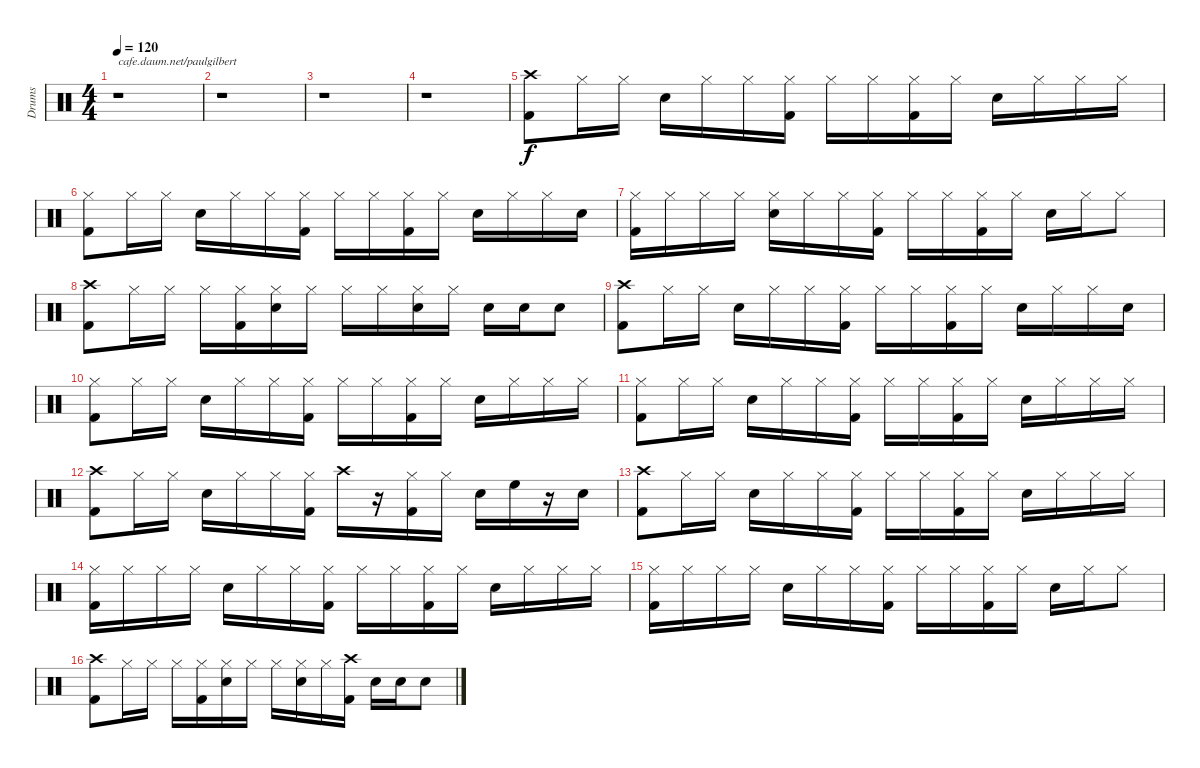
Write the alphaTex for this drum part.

\track ("Drums" "Drums") {instrument percussion}
\staff {score}
\articulation defaults
\ts (4 4)
\tempo 120
\clef neutral
\ks c
r.1{txt "cafe.daum.net/paulgilbert" dy f} |
r.1 |
r.1 |
r.1 |
("Crash high (hit)" "Kick (hit) 2").8 "Hi-Hat (closed)".16 "Hi-Hat (closed)".16 "Snare (hit) 2".16 "Hi-Hat (closed)".16 "Hi-Hat (closed)".16 ("Hi-Hat (closed)" "Kick (hit) 2").16 "Hi-Hat (closed)".16 "Hi-Hat (closed)".16 ("Hi-Hat (closed)" "Kick (hit) 2").16 "Hi-Hat (closed)".16 "Snare (hit) 2".16 "Hi-Hat (closed)".16 "Hi-Hat (closed)".16 "Hi-Hat (closed)".16 |
("Hi-Hat (closed)" "Kick (hit) 2").8 "Hi-Hat (closed)".16 "Hi-Hat (closed)".16 "Snare (hit) 2".16 "Hi-Hat (closed)".16 "Hi-Hat (closed)".16 ("Hi-Hat (closed)" "Kick (hit) 2").16 "Hi-Hat (closed)".16 "Hi-Hat (closed)".16 ("Hi-Hat (closed)" "Kick (hit) 2").16 "Hi-Hat (closed)".16 "Snare (hit) 2".16 "Hi-Hat (closed)".16 "Hi-Hat (closed)".16 "Snare (hit) 2".16 |
("Hi-Hat (closed)" "Kick (hit) 2").16 "Hi-Hat (closed)".16 "Hi-Hat (closed)".16 "Hi-Hat (closed)".16 ("Hi-Hat (closed)" "Snare (hit) 2").16 "Hi-Hat (closed)".16 "Hi-Hat (closed)".16 ("Hi-Hat (closed)" "Kick (hit) 2").16 "Hi-Hat (closed)".16 "Hi-Hat (closed)".16 ("Hi-Hat (closed)" "Kick (hit) 2").16 "Hi-Hat (closed)".16 "Snare (hit) 2".16 "Hi-Hat (closed)".16 "Hi-Hat (closed)".8 |
("Crash high (hit)" "Kick (hit) 2").8 "Hi-Hat (closed)".16 "Hi-Hat (closed)".16 "Hi-Hat (closed)".16 ("Hi-Hat (closed)" "Kick (hit) 2").16 ("Hi-Hat (closed)" "Snare (hit) 2").16 "Hi-Hat (closed)".16 "Hi-Hat (closed)".16 "Hi-Hat (closed)".16 ("Hi-Hat (closed)" "Snare (hit) 2").16 "Hi-Hat (closed)".16 "Snare (hit) 2".16 "Snare (hit) 2".16 "Snare (hit) 2".8 |
("Crash high (hit)" "Kick (hit) 2").8 "Hi-Hat (closed)".16 "Hi-Hat (closed)".16 "Snare (hit) 2".16 "Hi-Hat (closed)".16 "Hi-Hat (closed)".16 ("Hi-Hat (closed)" "Kick (hit) 2").16 "Hi-Hat (closed)".16 "Hi-Hat (closed)".16 ("Hi-Hat (closed)" "Kick (hit) 2").16 "Hi-Hat (closed)".16 "Snare (hit) 2".16 "Hi-Hat (closed)".16 "Hi-Hat (closed)".16 "Snare (hit) 2".16 |
("Hi-Hat (closed)" "Kick (hit) 2").8 "Hi-Hat (closed)".16 "Hi-Hat (closed)".16 "Snare (hit) 2".16 "Hi-Hat (closed)".16 "Hi-Hat (closed)".16 ("Hi-Hat (closed)" "Kick (hit) 2").16 "Hi-Hat (closed)".16 "Hi-Hat (closed)".16 ("Hi-Hat (closed)" "Kick (hit) 2").16 "Hi-Hat (closed)".16 "Snare (hit) 2".16 "Hi-Hat (closed)".16 "Hi-Hat (closed)".16 "Hi-Hat (closed)".16 |
("Hi-Hat (closed)" "Kick (hit) 2").8 "Hi-Hat (closed)".16 "Hi-Hat (closed)".16 "Snare (hit) 2".16 "Hi-Hat (closed)".16 "Hi-Hat (closed)".16 ("Hi-Hat (closed)" "Kick (hit) 2").16 "Hi-Hat (closed)".16 "Hi-Hat (closed)".16 ("Hi-Hat (closed)" "Kick (hit) 2").16 "Hi-Hat (closed)".16 "Snare (hit) 2".16 "Hi-Hat (closed)".16 "Hi-Hat (closed)".16 "Hi-Hat (closed)".16 |
("Crash high (hit)" "Kick (hit) 2").8 "Hi-Hat (closed)".16 "Hi-Hat (closed)".16 "Snare (hit) 2".16 "Hi-Hat (closed)".16 "Hi-Hat (closed)".16 ("Hi-Hat (closed)" "Kick (hit) 2").16 "Crash high (hit)".16 r.16 ("Hi-Hat (closed)" "Kick (hit) 2").16 "Hi-Hat (closed)".16 "Snare (hit) 2".16 "High Floor Tom (hit)".16 r.16 "Snare (hit) 2".16 |
("Crash high (hit)" "Kick (hit) 2").8 "Hi-Hat (closed)".16 "Hi-Hat (closed)".16 "Snare (hit) 2".16 "Hi-Hat (closed)".16 "Hi-Hat (closed)".16 ("Hi-Hat (closed)" "Kick (hit) 2").16 "Hi-Hat (closed)".16 "Hi-Hat (closed)".16 ("Hi-Hat (closed)" "Kick (hit) 2").16 "Hi-Hat (closed)".16 "Snare (hit) 2".16 "Hi-Hat (closed)".16 "Hi-Hat (closed)".16 "Hi-Hat (closed)".16 |
("Hi-Hat (closed)" "Kick (hit) 2").16 "Hi-Hat (closed)".16 "Hi-Hat (closed)".16 "Hi-Hat (closed)".16 "Snare (hit) 2".16 "Hi-Hat (closed)".16 "Hi-Hat (closed)".16 ("Hi-Hat (closed)" "Kick (hit) 2").16 "Hi-Hat (closed)".16 "Hi-Hat (closed)".16 ("Hi-Hat (closed)" "Kick (hit) 2").16 "Hi-Hat (closed)".16 "Snare (hit) 2".16 "Hi-Hat (closed)".16 "Hi-Hat (closed)".16 "Hi-Hat (closed)".16 |
("Hi-Hat (closed)" "Kick (hit) 2").16 "Hi-Hat (closed)".16 "Hi-Hat (closed)".16 "Hi-Hat (closed)".16 "Snare (hit) 2".16 "Hi-Hat (closed)".16 "Hi-Hat (closed)".16 ("Hi-Hat (closed)" "Kick (hit) 2").16 "Hi-Hat (closed)".16 "Hi-Hat (closed)".16 ("Hi-Hat (closed)" "Kick (hit) 2").16 "Hi-Hat (closed)".16 "Snare (hit) 2".16 "Hi-Hat (closed)".16 "Hi-Hat (closed)".8 |
("Crash high (hit)" "Kick (hit) 2").8 "Hi-Hat (closed)".16 "Hi-Hat (closed)".16 "Hi-Hat (closed)".16 ("Hi-Hat (closed)" "Kick (hit) 2").16 ("Hi-Hat (closed)" "Snare (hit) 2").16 "Hi-Hat (closed)".16 "Hi-Hat (closed)".16 ("Hi-Hat (closed)" "Snare (hit) 2").16 "Hi-Hat (closed)".16 ("Crash high (hit)" "Kick (hit) 2").16 "Snare (hit) 2".16 "Snare (hit) 2".16 "Snare (hit) 2".8
